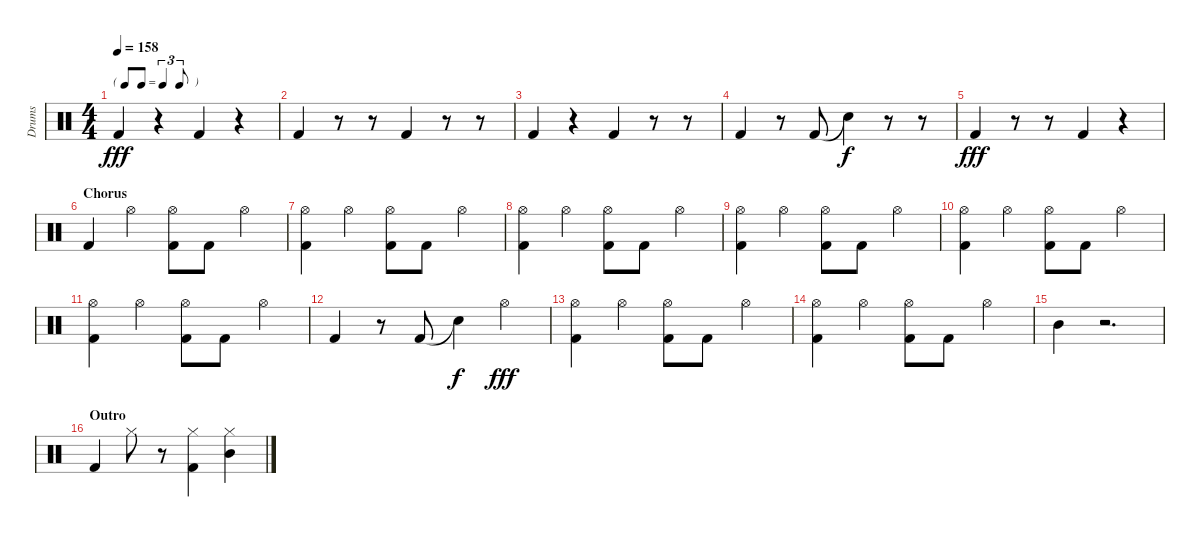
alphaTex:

\track ("Drums" "Drums") {instrument percussion}
\staff {score}
\articulation defaults
\ts (4 4)
\tf triplet8th
\tempo 158
\clef neutral
\ks c "Kick (hit) 2".4{dy fff}
r.4 "Kick (hit) 2".4 r.4 |
"Kick (hit) 2".4 r.8 r.8 "Kick (hit) 2".4 r.8 r.8 |
"Kick (hit) 2".4 r.4 "Kick (hit) 2".4 r.8 r.8 |
"Kick (hit) 2".4 r.8 "Kick (hit) 2".8 "Snare (hit)"{t}.4{dy f} r.8 r.8 |
"Kick (hit) 2".4{dy fff} r.8 r.8 "Kick (hit) 2".4 r.4 |
\section ("" "Chorus")
"Kick (hit) 2".4 "Hi-Hat (open)".4 ("Hi-Hat (open)" "Kick (hit) 2").8 "Kick (hit) 2".8 "Hi-Hat (open)".4 |
("Hi-Hat (open)" "Kick (hit) 2").4 "Hi-Hat (open)".4 ("Hi-Hat (open)" "Kick (hit) 2").8 "Kick (hit) 2".8 "Hi-Hat (open)".4 |
("Hi-Hat (open)" "Kick (hit) 2").4 "Hi-Hat (open)".4 ("Hi-Hat (open)" "Kick (hit) 2").8 "Kick (hit) 2".8 "Hi-Hat (open)".4 |
("Hi-Hat (open)" "Kick (hit) 2").4 "Hi-Hat (open)".4 ("Hi-Hat (open)" "Kick (hit) 2").8 "Kick (hit) 2".8 "Hi-Hat (open)".4 |
("Hi-Hat (open)" "Kick (hit) 2").4 "Hi-Hat (open)".4 ("Hi-Hat (open)" "Kick (hit) 2").8 "Kick (hit) 2".8 "Hi-Hat (open)".4 |
("Hi-Hat (open)" "Kick (hit) 2").4 "Hi-Hat (open)".4 ("Hi-Hat (open)" "Kick (hit) 2").8 "Kick (hit) 2".8 "Hi-Hat (open)".4 |
"Kick (hit) 2".4 r.8 "Kick (hit) 2".8 "Snare (hit)"{t}.4{dy f} "Hi-Hat (open)".4{dy fff} |
("Hi-Hat (open)" "Kick (hit) 2").4 "Hi-Hat (open)".4 ("Hi-Hat (open)" "Kick (hit) 2").8 "Kick (hit) 2".8 "Hi-Hat (open)".4 |
("Hi-Hat (open)" "Kick (hit) 2").4 "Hi-Hat (open)".4 ("Hi-Hat (open)" "Kick (hit) 2").8 "Kick (hit) 2".8 "Hi-Hat (open)".4 |
"Mid Tom (hit)".4 r.2{d} |
\section ("" "Outro")
"Kick (hit) 2".4 "Hi-Hat (closed)".8 r.8 ("Hi-Hat (closed)" "Kick (hit) 2").4 ("Hi-Hat (closed)" "Mid Tom (hit)").4
